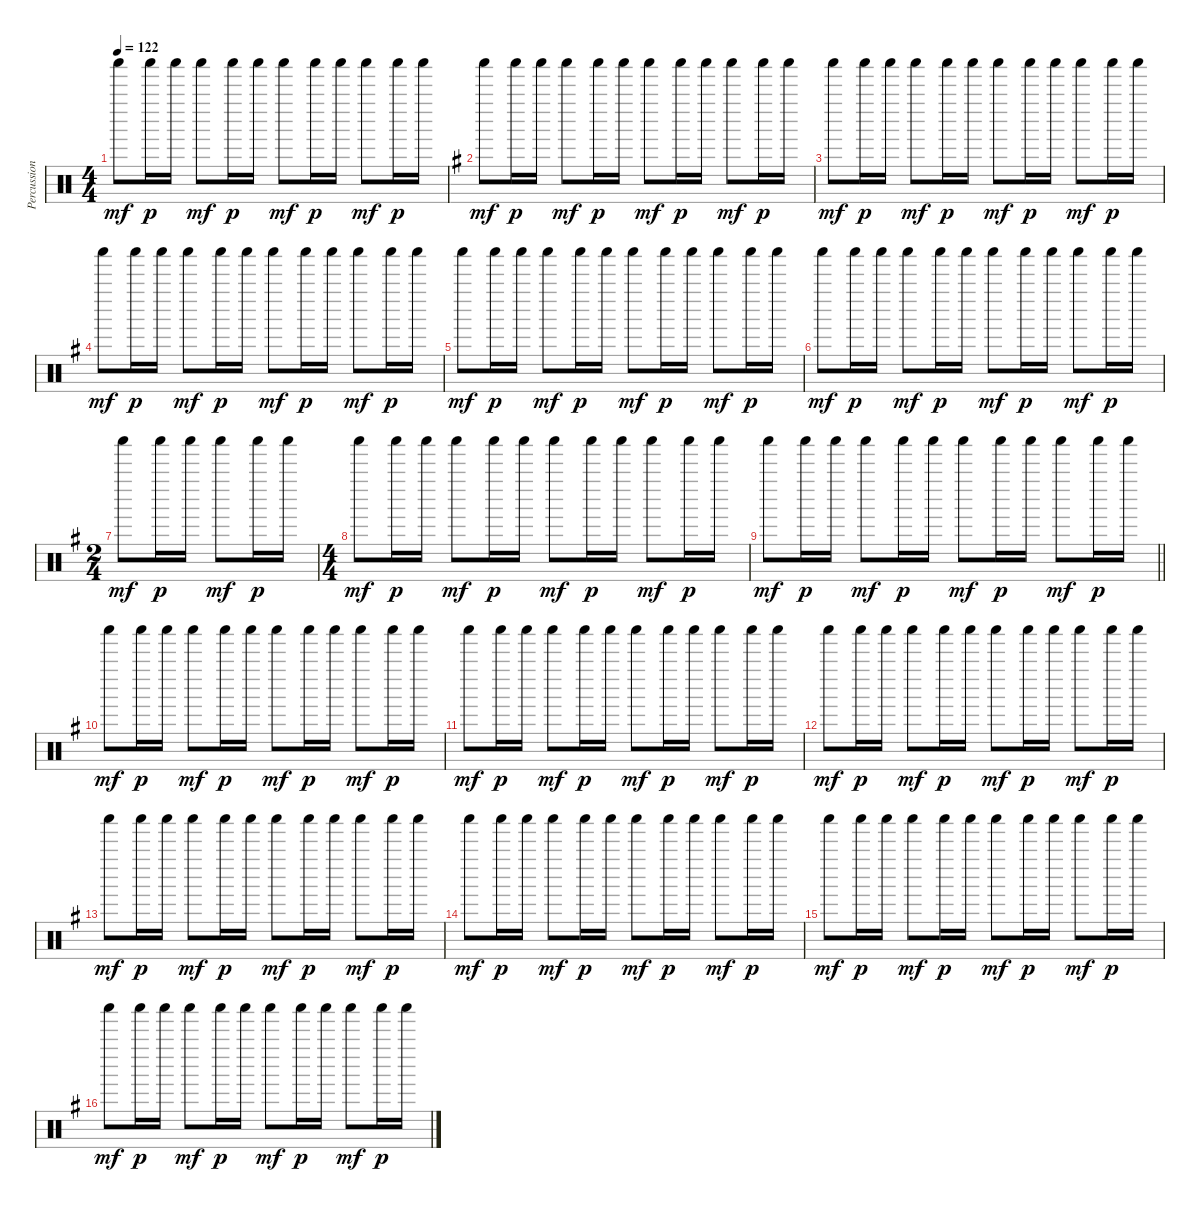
\track ("Percussion" "Percussion") {instrument percussion}
\staff {score}
\articulation defaults
\ts (4 4)
\tempo 122
\clef neutral
\ks c "Shaker (hit)".8{dy mf} "Shaker (hit)".16{dy p} "Shaker (hit)".16 "Shaker (hit)".8{dy mf} "Shaker (hit)".16{dy p} "Shaker (hit)".16 "Shaker (hit)".8{dy mf} "Shaker (hit)".16{dy p} "Shaker (hit)".16 "Shaker (hit)".8{dy mf} "Shaker (hit)".16{dy p} "Shaker (hit)".16
|
\ks g "Shaker (hit)".8{dy mf} "Shaker (hit)".16{dy p} "Shaker (hit)".16 "Shaker (hit)".8{dy mf} "Shaker (hit)".16{dy p} "Shaker (hit)".16 "Shaker (hit)".8{dy mf} "Shaker (hit)".16{dy p} "Shaker (hit)".16 "Shaker (hit)".8{dy mf} "Shaker (hit)".16{dy p} "Shaker (hit)".16
|
"Shaker (hit)".8{dy mf} "Shaker (hit)".16{dy p} "Shaker (hit)".16 "Shaker (hit)".8{dy mf} "Shaker (hit)".16{dy p} "Shaker (hit)".16 "Shaker (hit)".8{dy mf} "Shaker (hit)".16{dy p} "Shaker (hit)".16 "Shaker (hit)".8{dy mf} "Shaker (hit)".16{dy p} "Shaker (hit)".16 |
"Shaker (hit)".8{dy mf} "Shaker (hit)".16{dy p} "Shaker (hit)".16 "Shaker (hit)".8{dy mf} "Shaker (hit)".16{dy p} "Shaker (hit)".16 "Shaker (hit)".8{dy mf} "Shaker (hit)".16{dy p} "Shaker (hit)".16 "Shaker (hit)".8{dy mf} "Shaker (hit)".16{dy p} "Shaker (hit)".16 |
"Shaker (hit)".8{dy mf} "Shaker (hit)".16{dy p} "Shaker (hit)".16 "Shaker (hit)".8{dy mf} "Shaker (hit)".16{dy p} "Shaker (hit)".16 "Shaker (hit)".8{dy mf} "Shaker (hit)".16{dy p} "Shaker (hit)".16 "Shaker (hit)".8{dy mf} "Shaker (hit)".16{dy p} "Shaker (hit)".16 |
"Shaker (hit)".8{dy mf} "Shaker (hit)".16{dy p} "Shaker (hit)".16 "Shaker (hit)".8{dy mf} "Shaker (hit)".16{dy p} "Shaker (hit)".16 "Shaker (hit)".8{dy mf} "Shaker (hit)".16{dy p} "Shaker (hit)".16 "Shaker (hit)".8{dy mf} "Shaker (hit)".16{dy p} "Shaker (hit)".16 |
\ts (2 4)
"Shaker (hit)".8{dy mf} "Shaker (hit)".16{dy p} "Shaker (hit)".16 "Shaker (hit)".8{dy mf} "Shaker (hit)".16{dy p} "Shaker (hit)".16 |
\ts (4 4)
"Shaker (hit)".8{dy mf} "Shaker (hit)".16{dy p} "Shaker (hit)".16 "Shaker (hit)".8{dy mf} "Shaker (hit)".16{dy p} "Shaker (hit)".16 "Shaker (hit)".8{dy mf} "Shaker (hit)".16{dy p} "Shaker (hit)".16 "Shaker (hit)".8{dy mf} "Shaker (hit)".16{dy p} "Shaker (hit)".16 |
\barLineRight lightlight "Shaker (hit)".8{dy mf} "Shaker (hit)".16{dy p} "Shaker (hit)".16 "Shaker (hit)".8{dy mf} "Shaker (hit)".16{dy p} "Shaker (hit)".16 "Shaker (hit)".8{dy mf} "Shaker (hit)".16{dy p} "Shaker (hit)".16 "Shaker (hit)".8{dy mf} "Shaker (hit)".16{dy p} "Shaker (hit)".16
|
"Shaker (hit)".8{dy mf} "Shaker (hit)".16{dy p} "Shaker (hit)".16 "Shaker (hit)".8{dy mf} "Shaker (hit)".16{dy p} "Shaker (hit)".16 "Shaker (hit)".8{dy mf} "Shaker (hit)".16{dy p} "Shaker (hit)".16 "Shaker (hit)".8{dy mf} "Shaker (hit)".16{dy p} "Shaker (hit)".16 |
"Shaker (hit)".8{dy mf} "Shaker (hit)".16{dy p} "Shaker (hit)".16 "Shaker (hit)".8{dy mf} "Shaker (hit)".16{dy p} "Shaker (hit)".16 "Shaker (hit)".8{dy mf} "Shaker (hit)".16{dy p} "Shaker (hit)".16 "Shaker (hit)".8{dy mf} "Shaker (hit)".16{dy p} "Shaker (hit)".16 |
"Shaker (hit)".8{dy mf} "Shaker (hit)".16{dy p} "Shaker (hit)".16 "Shaker (hit)".8{dy mf} "Shaker (hit)".16{dy p} "Shaker (hit)".16 "Shaker (hit)".8{dy mf} "Shaker (hit)".16{dy p} "Shaker (hit)".16 "Shaker (hit)".8{dy mf} "Shaker (hit)".16{dy p} "Shaker (hit)".16 |
"Shaker (hit)".8{dy mf} "Shaker (hit)".16{dy p} "Shaker (hit)".16 "Shaker (hit)".8{dy mf} "Shaker (hit)".16{dy p} "Shaker (hit)".16 "Shaker (hit)".8{dy mf} "Shaker (hit)".16{dy p} "Shaker (hit)".16 "Shaker (hit)".8{dy mf} "Shaker (hit)".16{dy p} "Shaker (hit)".16 |
"Shaker (hit)".8{dy mf} "Shaker (hit)".16{dy p} "Shaker (hit)".16 "Shaker (hit)".8{dy mf} "Shaker (hit)".16{dy p} "Shaker (hit)".16 "Shaker (hit)".8{dy mf} "Shaker (hit)".16{dy p} "Shaker (hit)".16 "Shaker (hit)".8{dy mf} "Shaker (hit)".16{dy p} "Shaker (hit)".16 |
"Shaker (hit)".8{dy mf} "Shaker (hit)".16{dy p} "Shaker (hit)".16 "Shaker (hit)".8{dy mf} "Shaker (hit)".16{dy p} "Shaker (hit)".16 "Shaker (hit)".8{dy mf} "Shaker (hit)".16{dy p} "Shaker (hit)".16 "Shaker (hit)".8{dy mf} "Shaker (hit)".16{dy p} "Shaker (hit)".16 |
"Shaker (hit)".8{dy mf} "Shaker (hit)".16{dy p} "Shaker (hit)".16 "Shaker (hit)".8{dy mf} "Shaker (hit)".16{dy p} "Shaker (hit)".16 "Shaker (hit)".8{dy mf} "Shaker (hit)".16{dy p} "Shaker (hit)".16 "Shaker (hit)".8{dy mf} "Shaker (hit)".16{dy p} "Shaker (hit)".16
